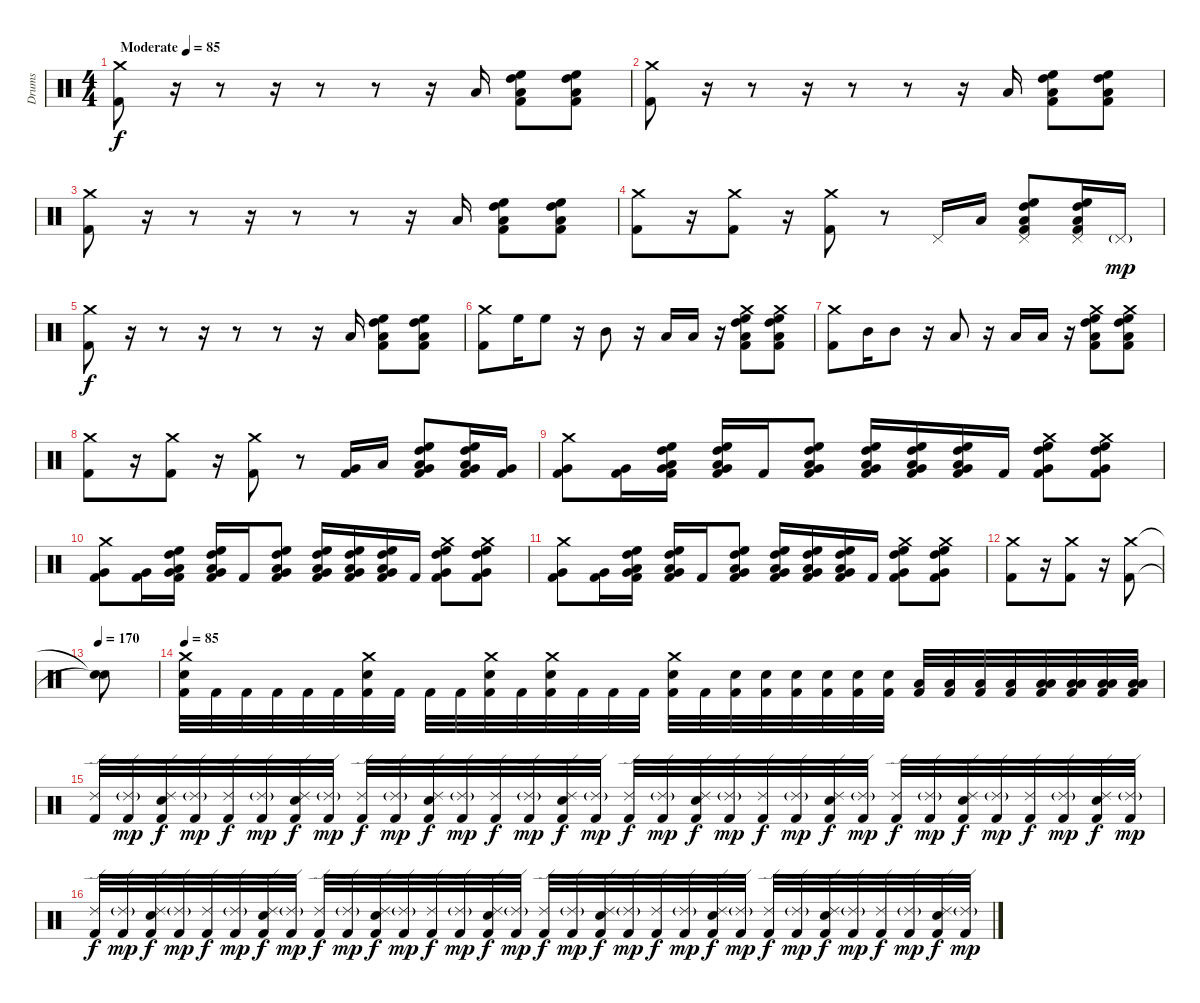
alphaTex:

\track ("Drums" "Drums") {instrument percussion}
\staff {score}
\articulation defaults
\ts (4 4)
\tempo (85 "Moderate")
\clef neutral
\ks c
("Crash medium (hit)" "Kick (hit) 2").8{dy f} r.16 r.8 r.16 r.8 r.8 r.16 "Low Floor Tom (hit)".16 ("High Tom (hit)" "Low Floor Tom (hit)" "High Floor Tom (hit)" "Kick (hit) 2").8 ("High Tom (hit)" "Low Floor Tom (hit)" "High Floor Tom (hit)" "Kick (hit) 2").8 |
("Crash medium (hit)" "Kick (hit) 2").8 r.16 r.8 r.16 r.8 r.8 r.16 "Low Floor Tom (hit)".16 ("High Tom (hit)" "Low Floor Tom (hit)" "High Floor Tom (hit)" "Kick (hit) 2").8 ("High Tom (hit)" "Low Floor Tom (hit)" "High Floor Tom (hit)" "Kick (hit) 2").8 |
("Crash medium (hit)" "Kick (hit) 2").8 r.16 r.8 r.16 r.8 r.8 r.16 "Low Floor Tom (hit)".16 ("High Tom (hit)" "Low Floor Tom (hit)" "High Floor Tom (hit)" "Kick (hit) 2").8 ("High Tom (hit)" "Low Floor Tom (hit)" "High Floor Tom (hit)" "Kick (hit) 2").8 |
("Crash medium (hit)" "Kick (hit) 2").8 r.16 ("Crash medium (hit)" "Kick (hit) 2").8 r.16 ("Crash medium (hit)" "Kick (hit) 2").8 r.8 "Pedal Hi-Hat (hit)".16 "Low Floor Tom (hit)".16 ("High Tom (hit)" "Low Floor Tom (hit)" "High Floor Tom (hit)" "Pedal Hi-Hat (hit)" "Kick (hit) 2").8 ("High Tom (hit)" "Low Floor Tom (hit)" "High Floor Tom (hit)" "Pedal Hi-Hat (hit)" "Kick (hit) 2").16 "Pedal Hi-Hat (hit)"{g}.16{dy mp} |
("Crash medium (hit)" "Kick (hit) 2").8{dy f} r.16 r.8 r.16 r.8 r.8 r.16 "Low Floor Tom (hit)".16 ("High Tom (hit)" "Low Floor Tom (hit)" "High Floor Tom (hit)" "Kick (hit) 2").8 ("High Tom (hit)" "Low Floor Tom (hit)" "High Floor Tom (hit)" "Kick (hit) 2").8 |
("Crash medium (hit)" "Kick (hit) 2").8 "High Floor Tom (hit)".16 "High Floor Tom (hit)".8 r.16 "Mid Tom (hit)".8 r.16 "Low Tom (hit)".16 "Low Tom (hit)".16 r.16 ("High Tom (hit)" "Low Floor Tom (hit)" "High Floor Tom (hit)" "Crash medium (hit)" "Kick (hit) 2").8 ("High Tom (hit)" "Low Floor Tom (hit)" "High Floor Tom (hit)" "Crash medium (hit)" "Kick (hit) 2").8 |
("Crash medium (hit)" "Kick (hit) 2").8 "Mid Tom (hit)".16 "Mid Tom (hit)".8 r.16 "Low Tom (hit)".8 r.16 "Low Floor Tom (hit)".16 "Low Floor Tom (hit)".16 r.16 ("High Tom (hit)" "Low Floor Tom (hit)" "High Floor Tom (hit)" "Crash medium (hit)" "Kick (hit) 2").8 ("High Tom (hit)" "Low Floor Tom (hit)" "High Floor Tom (hit)" "Crash medium (hit)" "Kick (hit) 2").8 |
("Crash medium (hit)" "Kick (hit) 2").8 r.16 ("Crash medium (hit)" "Kick (hit) 2").8 r.16 ("Crash medium (hit)" "Kick (hit) 2").8 r.8 ("Very Low Tom (hit)" "Kick (hit) 2").16 "Low Floor Tom (hit)".16 ("High Tom (hit)" "Low Floor Tom (hit)" "High Floor Tom (hit)" "Very Low Tom (hit)" "Kick (hit) 2").8 ("High Tom (hit)" "Low Floor Tom (hit)" "High Floor Tom (hit)" "Very Low Tom (hit)" "Kick (hit) 2").16 ("Very Low Tom (hit)" "Kick (hit) 2").16 |
("Crash medium (hit)" "Very Low Tom (hit)" "Kick (hit) 2").8 ("Very Low Tom (hit)" "Kick (hit) 2").16 ("High Tom (hit)" "Low Floor Tom (hit)" "High Floor Tom (hit)" "Very Low Tom (hit)" "Kick (hit) 2").16 ("High Tom (hit)" "Low Floor Tom (hit)" "High Floor Tom (hit)" "Very Low Tom (hit)" "Kick (hit) 2").16 "Kick (hit) 2".16 ("High Tom (hit)" "Low Floor Tom (hit)" "High Floor Tom (hit)" "Very Low Tom (hit)" "Kick (hit) 2").8 ("High Tom (hit)" "Low Floor Tom (hit)" "High Floor Tom (hit)" "Very Low Tom (hit)" "Kick (hit) 2").16 ("High Tom (hit)" "Low Floor Tom (hit)" "High Floor Tom (hit)" "Very Low Tom (hit)" "Kick (hit) 2").16 ("High Tom (hit)" "Low Floor Tom (hit)" "High Floor Tom (hit)" "Very Low Tom (hit)" "Kick (hit) 2").16 "Kick (hit) 2".16 ("High Tom (hit)" "Crash medium (hit)" "High Floor Tom (hit)" "Very Low Tom (hit)" "Kick (hit) 2").8 ("High Tom (hit)" "Crash medium (hit)" "High Floor Tom (hit)" "Very Low Tom (hit)" "Kick (hit) 2").8 |
("Crash medium (hit)" "Very Low Tom (hit)" "Kick (hit) 2").8 ("Very Low Tom (hit)" "Kick (hit) 2").16 ("High Tom (hit)" "Low Floor Tom (hit)" "High Floor Tom (hit)" "Very Low Tom (hit)" "Kick (hit) 2").16 ("High Tom (hit)" "Low Floor Tom (hit)" "High Floor Tom (hit)" "Very Low Tom (hit)" "Kick (hit) 2").16 "Kick (hit) 2".16 ("High Tom (hit)" "Low Floor Tom (hit)" "High Floor Tom (hit)" "Very Low Tom (hit)" "Kick (hit) 2").8 ("High Tom (hit)" "Low Floor Tom (hit)" "High Floor Tom (hit)" "Very Low Tom (hit)" "Kick (hit) 2").16 ("High Tom (hit)" "Low Floor Tom (hit)" "High Floor Tom (hit)" "Very Low Tom (hit)" "Kick (hit) 2").16 ("High Tom (hit)" "Low Floor Tom (hit)" "High Floor Tom (hit)" "Very Low Tom (hit)" "Kick (hit) 2").16 "Kick (hit) 2".16 ("High Tom (hit)" "Crash medium (hit)" "High Floor Tom (hit)" "Very Low Tom (hit)" "Kick (hit) 2").8 ("High Tom (hit)" "Crash medium (hit)" "High Floor Tom (hit)" "Very Low Tom (hit)" "Kick (hit) 2").8 |
("Crash medium (hit)" "Very Low Tom (hit)" "Kick (hit) 2").8 ("Very Low Tom (hit)" "Kick (hit) 2").16 ("High Tom (hit)" "Low Floor Tom (hit)" "High Floor Tom (hit)" "Very Low Tom (hit)" "Kick (hit) 2").16 ("High Tom (hit)" "Low Floor Tom (hit)" "High Floor Tom (hit)" "Very Low Tom (hit)" "Kick (hit) 2").16 "Kick (hit) 2".16 ("High Tom (hit)" "Low Floor Tom (hit)" "High Floor Tom (hit)" "Very Low Tom (hit)" "Kick (hit) 2").8 ("High Tom (hit)" "Low Floor Tom (hit)" "High Floor Tom (hit)" "Very Low Tom (hit)" "Kick (hit) 2").16 ("High Tom (hit)" "Low Floor Tom (hit)" "High Floor Tom (hit)" "Very Low Tom (hit)" "Kick (hit) 2").16 ("High Tom (hit)" "Low Floor Tom (hit)" "High Floor Tom (hit)" "Very Low Tom (hit)" "Kick (hit) 2").16 "Kick (hit) 2".16 ("High Tom (hit)" "Crash medium (hit)" "High Floor Tom (hit)" "Very Low Tom (hit)" "Kick (hit) 2").8 ("High Tom (hit)" "Crash medium (hit)" "High Floor Tom (hit)" "Very Low Tom (hit)" "Kick (hit) 2").8 |
("Crash medium (hit)" "Kick (hit) 2").8 r.16 ("Crash medium (hit)" "Kick (hit) 2").8 r.16 ("Crash medium (hit)" "Kick (hit) 2").8 |
\tempo 170
("Snare (hit)"{t} "Snare (hit)"{t}).8 |
\tempo 85
("Snare (hit) 2" "Crash medium (hit)" "Kick (hit) 2").32 "Kick (hit) 2".32 "Kick (hit) 2".32 "Kick (hit) 2".32 "Kick (hit) 2".32 "Kick (hit) 2".32 ("Snare (hit) 2" "Crash medium (hit)" "Kick (hit) 2").32 "Kick (hit) 2".32 "Kick (hit) 2".32 "Kick (hit) 2".32 ("Snare (hit) 2" "Crash medium (hit)" "Kick (hit) 2").32 "Kick (hit) 2".32 ("Snare (hit) 2" "Crash medium (hit)" "Kick (hit) 2").32 "Kick (hit) 2".32 "Kick (hit) 2".32 "Kick (hit) 2".32 ("Snare (hit) 2" "Crash medium (hit)" "Kick (hit) 2").32 "Kick (hit) 2".32 ("Snare (hit) 2" "Kick (hit) 2").32 ("Snare (hit) 2" "Kick (hit) 2").32 ("Snare (hit) 2" "Kick (hit) 2").32 ("Snare (hit) 2" "Kick (hit) 2").32 ("Snare (hit) 2" "Kick (hit) 2").32 ("Snare (hit) 2" "Kick (hit) 2").32 ("Low Tom (hit)" "Kick (hit) 2").32 ("Low Tom (hit)" "Kick (hit) 2").32 ("Low Tom (hit)" "Kick (hit) 2").32 ("Low Tom (hit)" "Kick (hit) 2").32 ("Low Tom (hit)" "Low Floor Tom (hit)" "Kick (hit) 2").32 ("Low Tom (hit)" "Low Floor Tom (hit)" "Kick (hit) 2").32 ("Low Tom (hit)" "Low Floor Tom (hit)" "Kick (hit) 2").32 ("Low Tom (hit)" "Low Floor Tom (hit)" "Kick (hit) 2").32 |
("Ride (edge) 2" "Kick (hit) 2").32 ("Ride (edge) 2"{g} "Kick (hit) 2").32{dy mp} ("Snare (hit) 2" "Ride (edge) 2" "Kick (hit) 2").32{dy f} ("Ride (edge) 2"{g} "Kick (hit) 2").32{dy mp} ("Ride (edge) 2" "Kick (hit) 2").32{dy f} ("Ride (edge) 2"{g} "Kick (hit) 2").32{dy mp} ("Snare (hit) 2" "Ride (edge) 2" "Kick (hit) 2").32{dy f} ("Ride (edge) 2"{g} "Kick (hit) 2").32{dy mp} ("Ride (edge) 2" "Kick (hit) 2").32{dy f} ("Ride (edge) 2"{g} "Kick (hit) 2").32{dy mp} ("Snare (hit) 2" "Ride (edge) 2" "Kick (hit) 2").32{dy f} ("Ride (edge) 2"{g} "Kick (hit) 2").32{dy mp} ("Ride (edge) 2" "Kick (hit) 2").32{dy f} ("Ride (edge) 2"{g} "Kick (hit) 2").32{dy mp} ("Snare (hit) 2" "Ride (edge) 2" "Kick (hit) 2").32{dy f} ("Ride (edge) 2"{g} "Kick (hit) 2").32{dy mp} ("Ride (edge) 2" "Kick (hit) 2").32{dy f} ("Ride (edge) 2"{g} "Kick (hit) 2").32{dy mp} ("Snare (hit) 2" "Ride (edge) 2" "Kick (hit) 2").32{dy f} ("Ride (edge) 2"{g} "Kick (hit) 2").32{dy mp} ("Ride (edge) 2" "Kick (hit) 2").32{dy f} ("Ride (edge) 2"{g} "Kick (hit) 2").32{dy mp} ("Snare (hit) 2" "Ride (edge) 2" "Kick (hit) 2").32{dy f} ("Ride (edge) 2"{g} "Kick (hit) 2").32{dy mp} ("Ride (edge) 2" "Kick (hit) 2").32{dy f} ("Ride (edge) 2"{g} "Kick (hit) 2").32{dy mp} ("Snare (hit) 2" "Ride (edge) 2" "Kick (hit) 2").32{dy f} ("Ride (edge) 2"{g} "Kick (hit) 2").32{dy mp} ("Ride (edge) 2" "Kick (hit) 2").32{dy f} ("Ride (edge) 2"{g} "Kick (hit) 2").32{dy mp} ("Snare (hit) 2" "Ride (edge) 2" "Kick (hit) 2").32{dy f} ("Ride (edge) 2"{g} "Kick (hit) 2").32{dy mp} |
("Ride (edge) 2" "Kick (hit) 2").32{dy f} ("Ride (edge) 2"{g} "Kick (hit) 2").32{dy mp} ("Snare (hit) 2" "Ride (edge) 2" "Kick (hit) 2").32{dy f} ("Ride (edge) 2"{g} "Kick (hit) 2").32{dy mp} ("Ride (edge) 2" "Kick (hit) 2").32{dy f} ("Ride (edge) 2"{g} "Kick (hit) 2").32{dy mp} ("Snare (hit) 2" "Ride (edge) 2" "Kick (hit) 2").32{dy f} ("Ride (edge) 2"{g} "Kick (hit) 2").32{dy mp} ("Ride (edge) 2" "Kick (hit) 2").32{dy f} ("Ride (edge) 2"{g} "Kick (hit) 2").32{dy mp} ("Snare (hit) 2" "Ride (edge) 2" "Kick (hit) 2").32{dy f} ("Ride (edge) 2"{g} "Kick (hit) 2").32{dy mp} ("Ride (edge) 2" "Kick (hit) 2").32{dy f} ("Ride (edge) 2"{g} "Kick (hit) 2").32{dy mp} ("Snare (hit) 2" "Ride (edge) 2" "Kick (hit) 2").32{dy f} ("Ride (edge) 2"{g} "Kick (hit) 2").32{dy mp} ("Ride (edge) 2" "Kick (hit) 2").32{dy f} ("Ride (edge) 2"{g} "Kick (hit) 2").32{dy mp} ("Snare (hit) 2" "Ride (edge) 2" "Kick (hit) 2").32{dy f} ("Ride (edge) 2"{g} "Kick (hit) 2").32{dy mp} ("Ride (edge) 2" "Kick (hit) 2").32{dy f} ("Ride (edge) 2"{g} "Kick (hit) 2").32{dy mp} ("Snare (hit) 2" "Ride (edge) 2" "Kick (hit) 2").32{dy f} ("Ride (edge) 2"{g} "Kick (hit) 2").32{dy mp} ("Ride (edge) 2" "Kick (hit) 2").32{dy f} ("Ride (edge) 2"{g} "Kick (hit) 2").32{dy mp} ("Snare (hit) 2" "Ride (edge) 2" "Kick (hit) 2").32{dy f} ("Ride (edge) 2"{g} "Kick (hit) 2").32{dy mp} ("Ride (edge) 2" "Kick (hit) 2").32{dy f} ("Ride (edge) 2"{g} "Kick (hit) 2").32{dy mp} ("Snare (hit) 2" "Ride (edge) 2" "Kick (hit) 2").32{dy f} ("Ride (edge) 2"{g} "Kick (hit) 2").32{dy mp}
